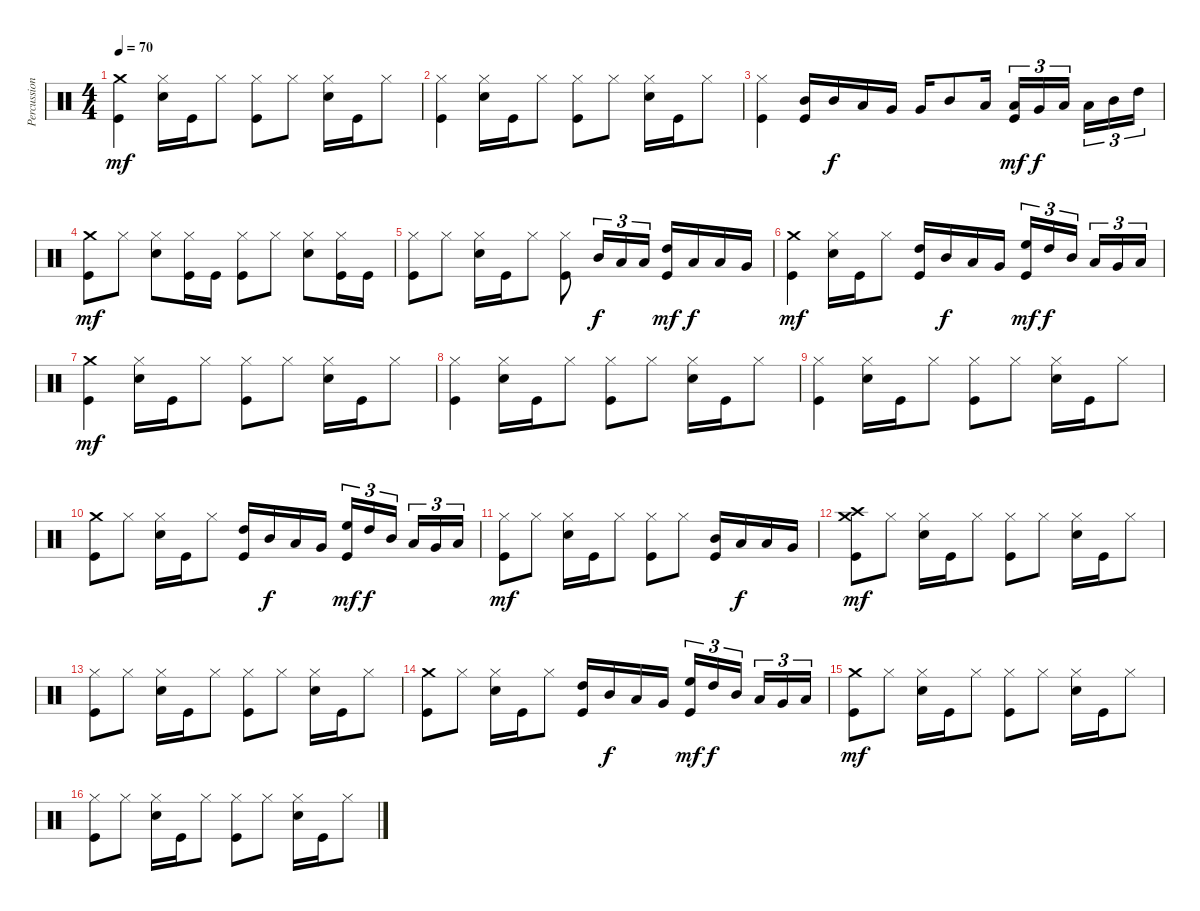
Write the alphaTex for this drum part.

\track ("Percussion" "Percussion") {instrument percussion}
\staff {score}
\articulation defaults
\ts (4 4)
\tempo 70
\clef neutral
\ks c
("Crash medium (hit)" "Kick (hit)").4{dy mf} ("Hi-Hat (closed)" "Snare (hit) 2").16 "Kick (hit)".16 "Hi-Hat (closed)".8 ("Hi-Hat (closed)" "Kick (hit)").8 "Hi-Hat (closed)".8 ("Hi-Hat (closed)" "Snare (hit) 2").16 "Kick (hit)".16 "Hi-Hat (closed)".8 |
("Hi-Hat (closed)" "Kick (hit)").4 ("Hi-Hat (closed)" "Snare (hit) 2").16 "Kick (hit)".16 "Hi-Hat (closed)".8 ("Hi-Hat (closed)" "Kick (hit)").8 "Hi-Hat (closed)".8 ("Hi-Hat (closed)" "Snare (hit) 2").16 "Kick (hit)".16 "Hi-Hat (closed)".8 |
("Hi-Hat (closed)" "Kick (hit)").4 ("Mid Tom (hit)" "Kick (hit)").16 "Mid Tom (hit)".16{dy f} "Low Tom (hit)".16 "Very Low Tom (hit)".16 "Very Low Tom (hit)".16 "Mid Tom (hit)".8 "Low Floor Tom (hit)".16 ("Low Floor Tom (hit)" "Kick (hit)").16{tu (3 2) dy mf} "Very Low Tom (hit)".16{tu (3 2) dy f} "Low Tom (hit)".16{tu (3 2)} "Low Tom (hit)".16{tu (3 2)} "Mid Tom (hit)".16{tu (3 2)} "High Tom (hit)".16{tu (3 2)} |
("Crash medium (hit)" "Kick (hit)").8{dy mf} "Hi-Hat (closed)".8 ("Hi-Hat (closed)" "Snare (hit) 2").8 ("Hi-Hat (closed)" "Kick (hit)").16 "Kick (hit)".16 ("Hi-Hat (closed)" "Kick (hit)").8 "Hi-Hat (closed)".8 ("Hi-Hat (closed)" "Snare (hit) 2").8 ("Hi-Hat (closed)" "Kick (hit)").16 "Kick (hit)".16 |
("Hi-Hat (closed)" "Kick (hit)").8 "Hi-Hat (closed)".8 ("Hi-Hat (closed)" "Snare (hit) 2").16 "Kick (hit)".16 "Hi-Hat (closed)".8 ("Hi-Hat (closed)" "Kick (hit)").8 "Mid Tom (hit)".16{tu (3 2) dy f} "Low Tom (hit)".16{tu (3 2)} "Low Tom (hit)".16{tu (3 2)} ("High Tom (hit)" "Kick (hit)").16{dy mf} "Low Tom (hit)".16{dy f} "Low Tom (hit)".16 "Very Low Tom (hit)".16 |
("Crash medium (hit)" "Kick (hit)").4{dy mf} ("Hi-Hat (closed)" "Snare (hit) 2").16 "Kick (hit)".16 "Hi-Hat (closed)".8 ("High Tom (hit)" "Kick (hit)").16 "Mid Tom (hit)".16{dy f} "Low Tom (hit)".16 "Very Low Tom (hit)".16 ("High Floor Tom (hit)" "Kick (hit)").16{tu (3 2) dy mf} "High Tom (hit)".16{tu (3 2) dy f} "Mid Tom (hit)".16{tu (3 2)} "Low Tom (hit)".16{tu (3 2)} "Very Low Tom (hit)".16{tu (3 2)} "Low Floor Tom (hit)".16{tu (3 2)} |
("Crash medium (hit)" "Kick (hit)").4{dy mf} ("Hi-Hat (closed)" "Snare (hit) 2").16 "Kick (hit)".16 "Hi-Hat (closed)".8 ("Hi-Hat (closed)" "Kick (hit)").8 "Hi-Hat (closed)".8 ("Hi-Hat (closed)" "Snare (hit) 2").16 "Kick (hit)".16 "Hi-Hat (closed)".8 |
("Hi-Hat (closed)" "Kick (hit)").4 ("Hi-Hat (closed)" "Snare (hit) 2").16 "Kick (hit)".16 "Hi-Hat (closed)".8 ("Hi-Hat (closed)" "Kick (hit)").8 "Hi-Hat (closed)".8 ("Hi-Hat (closed)" "Snare (hit) 2").16 "Kick (hit)".16 "Hi-Hat (closed)".8 |
("Hi-Hat (closed)" "Kick (hit)").4 ("Hi-Hat (closed)" "Snare (hit) 2").16 "Kick (hit)".16 "Hi-Hat (closed)".8 ("Hi-Hat (closed)" "Kick (hit)").8 "Hi-Hat (closed)".8 ("Hi-Hat (closed)" "Snare (hit) 2").16 "Kick (hit)".16 "Hi-Hat (closed)".8 |
("Crash medium (hit)" "Kick (hit)").8 "Hi-Hat (closed)".8 ("Hi-Hat (closed)" "Snare (hit) 2").16 "Kick (hit)".16 "Hi-Hat (closed)".8 ("High Tom (hit)" "Kick (hit)").16 "Mid Tom (hit)".16{dy f} "Low Tom (hit)".16 "Very Low Tom (hit)".16 ("High Floor Tom (hit)" "Kick (hit)").16{tu (3 2) dy mf} "High Tom (hit)".16{tu (3 2) dy f} "Mid Tom (hit)".16{tu (3 2)} "Low Tom (hit)".16{tu (3 2)} "Very Low Tom (hit)".16{tu (3 2)} "Low Floor Tom (hit)".16{tu (3 2)} |
("Hi-Hat (closed)" "Kick (hit)").8{dy mf} "Hi-Hat (closed)".8 ("Hi-Hat (closed)" "Snare (hit) 2").16 "Kick (hit)".16 "Hi-Hat (closed)".8 ("Hi-Hat (closed)" "Kick (hit)").8 "Hi-Hat (closed)".8 ("Mid Tom (hit)" "Kick (hit)").16 "Low Tom (hit)".16{dy f} "Low Tom (hit)".16 "Very Low Tom (hit)".16 |
("Crash medium (hit)" "Crash high (hit)" "Kick (hit)").8{dy mf} "Hi-Hat (closed)".8 ("Hi-Hat (closed)" "Snare (hit) 2").16 "Kick (hit)".16 "Hi-Hat (closed)".8 ("Hi-Hat (closed)" "Kick (hit)").8 "Hi-Hat (closed)".8 ("Hi-Hat (closed)" "Snare (hit) 2").16 "Kick (hit)".16 "Hi-Hat (closed)".8 |
("Hi-Hat (closed)" "Kick (hit)").8 "Hi-Hat (closed)".8 ("Hi-Hat (closed)" "Snare (hit) 2").16 "Kick (hit)".16 "Hi-Hat (closed)".8 ("Hi-Hat (closed)" "Kick (hit)").8 "Hi-Hat (closed)".8 ("Hi-Hat (closed)" "Snare (hit) 2").16 "Kick (hit)".16 "Hi-Hat (closed)".8 |
("Crash medium (hit)" "Kick (hit)").8 "Hi-Hat (closed)".8 ("Hi-Hat (closed)" "Snare (hit) 2").16 "Kick (hit)".16 "Hi-Hat (closed)".8 ("High Tom (hit)" "Kick (hit)").16 "Mid Tom (hit)".16{dy f} "Low Tom (hit)".16 "Very Low Tom (hit)".16 ("High Floor Tom (hit)" "Kick (hit)").16{tu (3 2) dy mf} "High Tom (hit)".16{tu (3 2) dy f} "Mid Tom (hit)".16{tu (3 2)} "Low Tom (hit)".16{tu (3 2)} "Very Low Tom (hit)".16{tu (3 2)} "Low Floor Tom (hit)".16{tu (3 2)} |
("Crash medium (hit)" "Kick (hit)").8{dy mf} "Hi-Hat (closed)".8 ("Hi-Hat (closed)" "Snare (hit) 2").16 "Kick (hit)".16 "Hi-Hat (closed)".8 ("Hi-Hat (closed)" "Kick (hit)").8 "Hi-Hat (closed)".8 ("Hi-Hat (closed)" "Snare (hit) 2").16 "Kick (hit)".16 "Hi-Hat (closed)".8 |
("Hi-Hat (closed)" "Kick (hit)").8 "Hi-Hat (closed)".8 ("Hi-Hat (closed)" "Snare (hit) 2").16 "Kick (hit)".16 "Hi-Hat (closed)".8 ("Hi-Hat (closed)" "Kick (hit)").8 "Hi-Hat (closed)".8 ("Hi-Hat (closed)" "Snare (hit) 2").16 "Kick (hit)".16 "Hi-Hat (closed)".8
